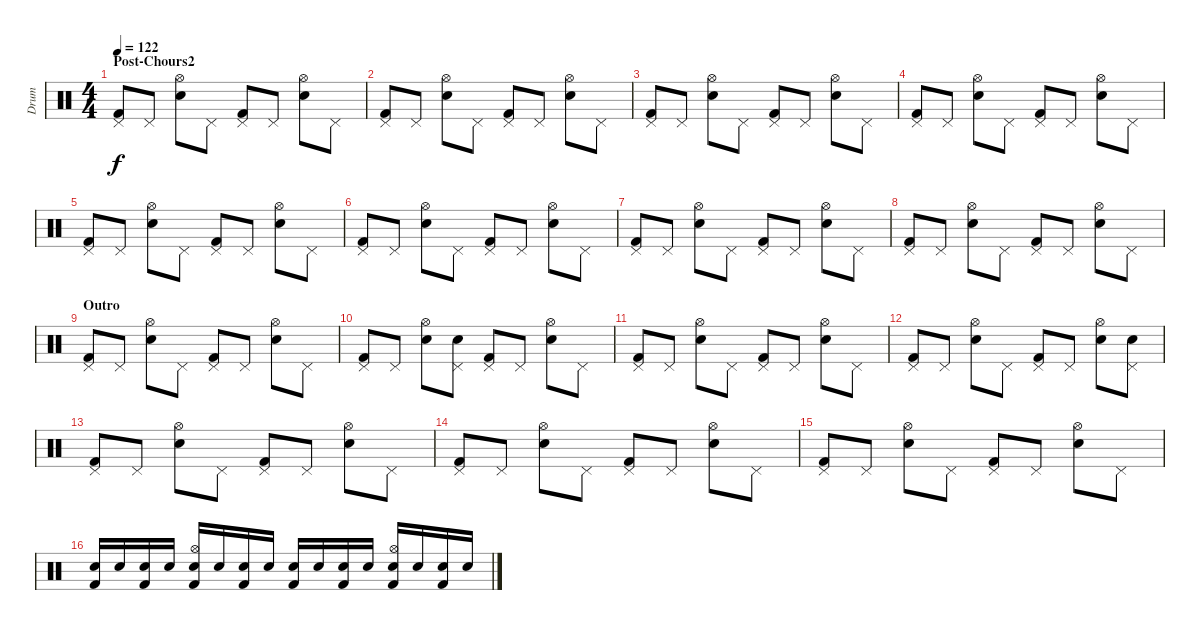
\track ("Drum" "Drum") {instrument percussion}
\staff {score}
\articulation defaults
\ts (4 4)
\section ("" "Post-Chours2")
\tempo 122
\clef neutral
\ks c
("Pedal Hi-Hat (hit)" "Kick (hit) 2").8{dy f} "Pedal Hi-Hat (hit)".8 ("Hi-Hat (open)" "Electric Snare (hit)").8 "Pedal Hi-Hat (hit)".8 ("Pedal Hi-Hat (hit)" "Kick (hit) 2").8 "Pedal Hi-Hat (hit)".8 ("Hi-Hat (open)" "Electric Snare (hit)").8 "Pedal Hi-Hat (hit)".8 |
("Pedal Hi-Hat (hit)" "Kick (hit) 2").8 "Pedal Hi-Hat (hit)".8 ("Hi-Hat (open)" "Electric Snare (hit)").8 "Pedal Hi-Hat (hit)".8 ("Pedal Hi-Hat (hit)" "Kick (hit) 2").8 "Pedal Hi-Hat (hit)".8 ("Hi-Hat (open)" "Electric Snare (hit)").8 "Pedal Hi-Hat (hit)".8 |
("Pedal Hi-Hat (hit)" "Kick (hit) 2").8 "Pedal Hi-Hat (hit)".8 ("Hi-Hat (open)" "Electric Snare (hit)").8 "Pedal Hi-Hat (hit)".8 ("Pedal Hi-Hat (hit)" "Kick (hit) 2").8 "Pedal Hi-Hat (hit)".8 ("Hi-Hat (open)" "Electric Snare (hit)").8 "Pedal Hi-Hat (hit)".8 |
("Pedal Hi-Hat (hit)" "Kick (hit) 2").8 "Pedal Hi-Hat (hit)".8 ("Hi-Hat (open)" "Electric Snare (hit)").8 "Pedal Hi-Hat (hit)".8 ("Pedal Hi-Hat (hit)" "Kick (hit) 2").8 "Pedal Hi-Hat (hit)".8 ("Hi-Hat (open)" "Electric Snare (hit)").8 "Pedal Hi-Hat (hit)".8 |
("Pedal Hi-Hat (hit)" "Kick (hit) 2").8 "Pedal Hi-Hat (hit)".8 ("Hi-Hat (open)" "Electric Snare (hit)").8 "Pedal Hi-Hat (hit)".8 ("Pedal Hi-Hat (hit)" "Kick (hit) 2").8 "Pedal Hi-Hat (hit)".8 ("Hi-Hat (open)" "Electric Snare (hit)").8 "Pedal Hi-Hat (hit)".8 |
("Pedal Hi-Hat (hit)" "Kick (hit) 2").8 "Pedal Hi-Hat (hit)".8 ("Hi-Hat (open)" "Electric Snare (hit)").8 "Pedal Hi-Hat (hit)".8 ("Pedal Hi-Hat (hit)" "Kick (hit) 2").8 "Pedal Hi-Hat (hit)".8 ("Hi-Hat (open)" "Electric Snare (hit)").8 "Pedal Hi-Hat (hit)".8 |
("Pedal Hi-Hat (hit)" "Kick (hit) 2").8 "Pedal Hi-Hat (hit)".8 ("Hi-Hat (open)" "Electric Snare (hit)").8 "Pedal Hi-Hat (hit)".8 ("Pedal Hi-Hat (hit)" "Kick (hit) 2").8 "Pedal Hi-Hat (hit)".8 ("Hi-Hat (open)" "Electric Snare (hit)").8 "Pedal Hi-Hat (hit)".8 |
("Pedal Hi-Hat (hit)" "Kick (hit) 2").8 "Pedal Hi-Hat (hit)".8 ("Hi-Hat (open)" "Electric Snare (hit)").8 "Pedal Hi-Hat (hit)".8 ("Pedal Hi-Hat (hit)" "Kick (hit) 2").8 "Pedal Hi-Hat (hit)".8 ("Hi-Hat (open)" "Electric Snare (hit)").8 "Pedal Hi-Hat (hit)".8 |
\section ("" "Outro")
("Pedal Hi-Hat (hit)" "Kick (hit) 2").8 "Pedal Hi-Hat (hit)".8 ("Hi-Hat (open)" "Electric Snare (hit)").8 "Pedal Hi-Hat (hit)".8 ("Pedal Hi-Hat (hit)" "Kick (hit) 2").8 "Pedal Hi-Hat (hit)".8 ("Hi-Hat (open)" "Electric Snare (hit)").8 "Pedal Hi-Hat (hit)".8 |
("Pedal Hi-Hat (hit)" "Kick (hit) 2").8 "Pedal Hi-Hat (hit)".8 ("Hi-Hat (open)" "Electric Snare (hit)").8 ("Pedal Hi-Hat (hit)" "Electric Snare (hit)").8 ("Pedal Hi-Hat (hit)" "Kick (hit) 2").8 "Pedal Hi-Hat (hit)".8 ("Hi-Hat (open)" "Electric Snare (hit)").8 "Pedal Hi-Hat (hit)".8 |
("Pedal Hi-Hat (hit)" "Kick (hit) 2").8 "Pedal Hi-Hat (hit)".8 ("Hi-Hat (open)" "Electric Snare (hit)").8 "Pedal Hi-Hat (hit)".8 ("Pedal Hi-Hat (hit)" "Kick (hit) 2").8 "Pedal Hi-Hat (hit)".8 ("Hi-Hat (open)" "Electric Snare (hit)").8 "Pedal Hi-Hat (hit)".8 |
("Pedal Hi-Hat (hit)" "Kick (hit) 2").8 "Pedal Hi-Hat (hit)".8 ("Hi-Hat (open)" "Electric Snare (hit)").8 "Pedal Hi-Hat (hit)".8 ("Pedal Hi-Hat (hit)" "Kick (hit) 2").8 "Pedal Hi-Hat (hit)".8 ("Hi-Hat (open)" "Electric Snare (hit)").8 ("Pedal Hi-Hat (hit)" "Electric Snare (hit)").8 |
("Pedal Hi-Hat (hit)" "Kick (hit) 2").8 "Pedal Hi-Hat (hit)".8 ("Hi-Hat (open)" "Electric Snare (hit)").8 "Pedal Hi-Hat (hit)".8 ("Pedal Hi-Hat (hit)" "Kick (hit) 2").8 "Pedal Hi-Hat (hit)".8 ("Hi-Hat (open)" "Electric Snare (hit)").8 "Pedal Hi-Hat (hit)".8 |
("Pedal Hi-Hat (hit)" "Kick (hit) 2").8 "Pedal Hi-Hat (hit)".8 ("Hi-Hat (open)" "Electric Snare (hit)").8 "Pedal Hi-Hat (hit)".8 ("Pedal Hi-Hat (hit)" "Kick (hit) 2").8 "Pedal Hi-Hat (hit)".8 ("Hi-Hat (open)" "Electric Snare (hit)").8 "Pedal Hi-Hat (hit)".8 |
("Pedal Hi-Hat (hit)" "Kick (hit) 2").8 "Pedal Hi-Hat (hit)".8 ("Hi-Hat (open)" "Electric Snare (hit)").8 "Pedal Hi-Hat (hit)".8 ("Pedal Hi-Hat (hit)" "Kick (hit) 2").8 "Pedal Hi-Hat (hit)".8 ("Hi-Hat (open)" "Electric Snare (hit)").8 "Pedal Hi-Hat (hit)".8 |
("Electric Snare (hit)" "Kick (hit) 2").16 "Electric Snare (hit)".16 ("Electric Snare (hit)" "Kick (hit) 2").16 "Electric Snare (hit)".16 ("Hi-Hat (open)" "Electric Snare (hit)" "Kick (hit) 2").16 "Electric Snare (hit)".16 ("Electric Snare (hit)" "Kick (hit) 2").16 "Electric Snare (hit)".16 ("Electric Snare (hit)" "Kick (hit) 2").16 "Electric Snare (hit)".16 ("Electric Snare (hit)" "Kick (hit) 2").16 "Electric Snare (hit)".16 ("Hi-Hat (open)" "Electric Snare (hit)" "Kick (hit) 2").16 "Electric Snare (hit)".16 ("Electric Snare (hit)" "Kick (hit) 2").16 "Electric Snare (hit)".16
